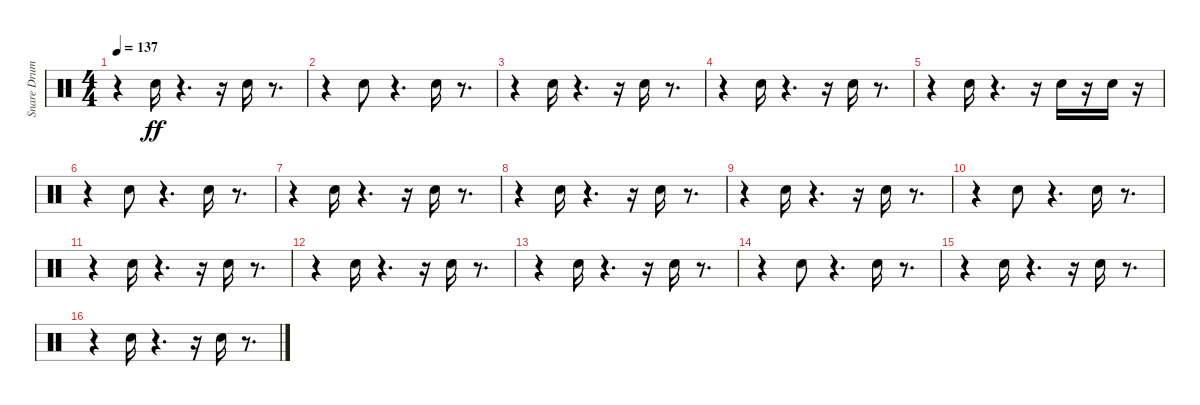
\track ("Snare Drum" "Snare Drum") {instrument percussion}
\staff {score}
\articulation defaults
\ts (4 4)
\tempo 137
\clef neutral
\ks c
r.4{dy ff} "Electric Snare (hit)".16 r.4{d} r.16 "Electric Snare (hit)".16 r.8{d} |
r.4 "Electric Snare (hit)".8 r.4{d} "Electric Snare (hit)".16 r.8{d} |
r.4 "Electric Snare (hit)".16 r.4{d} r.16 "Electric Snare (hit)".16 r.8{d} |
r.4 "Electric Snare (hit)".16 r.4{d} r.16 "Electric Snare (hit)".16 r.8{d} |
r.4 "Electric Snare (hit)".16 r.4{d} r.16 "Electric Snare (hit)".16 r.16 "Electric Snare (hit)".16 r.16 |
r.4 "Electric Snare (hit)".8 r.4{d} "Electric Snare (hit)".16 r.8{d} |
r.4 "Electric Snare (hit)".16 r.4{d} r.16 "Electric Snare (hit)".16 r.8{d} |
r.4 "Electric Snare (hit)".16 r.4{d} r.16 "Electric Snare (hit)".16 r.8{d} |
r.4 "Electric Snare (hit)".16 r.4{d} r.16 "Electric Snare (hit)".16 r.8{d} |
r.4 "Electric Snare (hit)".8 r.4{d} "Electric Snare (hit)".16 r.8{d} |
r.4 "Electric Snare (hit)".16 r.4{d} r.16 "Electric Snare (hit)".16 r.8{d} |
r.4 "Electric Snare (hit)".16 r.4{d} r.16 "Electric Snare (hit)".16 r.8{d} |
r.4 "Electric Snare (hit)".16 r.4{d} r.16 "Electric Snare (hit)".16 r.8{d} |
r.4 "Electric Snare (hit)".8 r.4{d} "Electric Snare (hit)".16 r.8{d} |
r.4 "Electric Snare (hit)".16 r.4{d} r.16 "Electric Snare (hit)".16 r.8{d} |
r.4 "Electric Snare (hit)".16 r.4{d} r.16 "Electric Snare (hit)".16 r.8{d}
